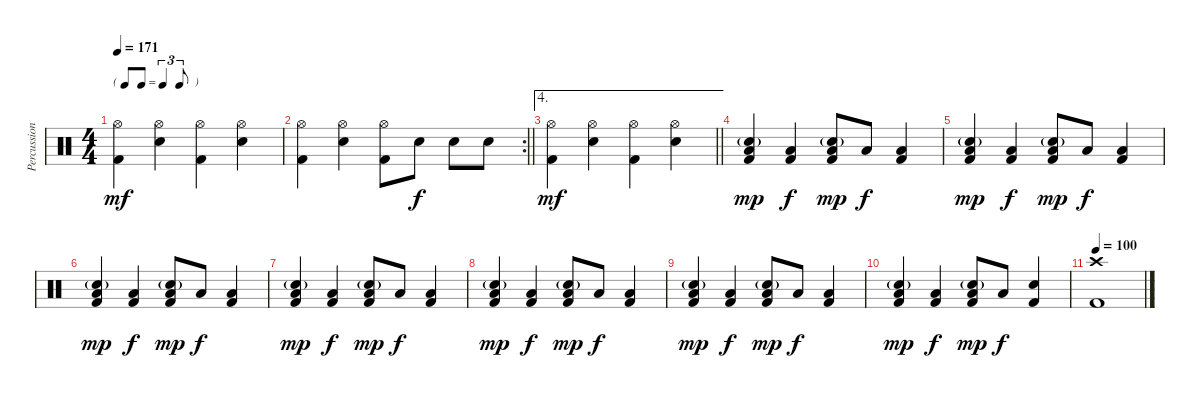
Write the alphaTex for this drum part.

\track ("Percussion" "Percussion") {instrument percussion}
\staff {score}
\articulation defaults
\ts (4 4)
\tf triplet8th
\tempo 171
\clef neutral
\ks c
("Hi-Hat (open)" "Kick (hit) 2").4{dy mf} ("Hi-Hat (open)" "Snare (hit) 2").4 ("Hi-Hat (open)" "Kick (hit) 2").4 ("Hi-Hat (open)" "Snare (hit) 2").4 |
\rc 2
\barLineRight lightlight
("Hi-Hat (open)" "Kick (hit) 2").4 ("Hi-Hat (open)" "Snare (hit) 2").4 ("Hi-Hat (open)" "Kick (hit) 2").8 "Snare (hit) 2".8{dy f} "Snare (hit) 2".8 "Snare (hit) 2".8 |
\ae 4
\barLineRight lightlight
("Hi-Hat (open)" "Kick (hit) 2").4{dy mf} ("Hi-Hat (open)" "Snare (hit) 2").4 ("Hi-Hat (open)" "Kick (hit) 2").4 ("Hi-Hat (open)" "Snare (hit) 2").4 |
("Snare (hit) 2"{g} "Low Floor Tom (hit)" "Kick (hit) 2").4{dy mp} ("Low Floor Tom (hit)" "Kick (hit) 2").4{dy f} ("Snare (hit) 2"{g} "Low Floor Tom (hit)" "Kick (hit) 2").8{dy mp} "Low Floor Tom (hit)".8{dy f} ("Low Floor Tom (hit)" "Kick (hit) 2").4 |
("Snare (hit) 2"{g} "Low Floor Tom (hit)" "Kick (hit) 2").4{dy mp} ("Low Floor Tom (hit)" "Kick (hit) 2").4{dy f} ("Snare (hit) 2"{g} "Low Floor Tom (hit)" "Kick (hit) 2").8{dy mp} "Low Floor Tom (hit)".8{dy f} ("Low Floor Tom (hit)" "Kick (hit) 2").4 |
("Snare (hit) 2"{g} "Low Floor Tom (hit)" "Kick (hit) 2").4{dy mp} ("Low Floor Tom (hit)" "Kick (hit) 2").4{dy f} ("Snare (hit) 2"{g} "Low Floor Tom (hit)" "Kick (hit) 2").8{dy mp} "Low Floor Tom (hit)".8{dy f} ("Low Floor Tom (hit)" "Kick (hit) 2").4 |
("Snare (hit) 2"{g} "Low Floor Tom (hit)" "Kick (hit) 2").4{dy mp} ("Low Floor Tom (hit)" "Kick (hit) 2").4{dy f} ("Snare (hit) 2"{g} "Low Floor Tom (hit)" "Kick (hit) 2").8{dy mp} "Low Floor Tom (hit)".8{dy f} ("Low Floor Tom (hit)" "Kick (hit) 2").4 |
("Snare (hit) 2"{g} "Low Floor Tom (hit)" "Kick (hit) 2").4{dy mp} ("Low Floor Tom (hit)" "Kick (hit) 2").4{dy f} ("Snare (hit) 2"{g} "Low Floor Tom (hit)" "Kick (hit) 2").8{dy mp} "Low Floor Tom (hit)".8{dy f} ("Low Floor Tom (hit)" "Kick (hit) 2").4 |
("Snare (hit) 2"{g} "Low Floor Tom (hit)" "Kick (hit) 2").4{dy mp} ("Low Floor Tom (hit)" "Kick (hit) 2").4{dy f} ("Snare (hit) 2"{g} "Low Floor Tom (hit)" "Kick (hit) 2").8{dy mp} "Low Floor Tom (hit)".8{dy f} ("Low Floor Tom (hit)" "Kick (hit) 2").4 |
("Snare (hit) 2"{g} "Low Floor Tom (hit)" "Kick (hit) 2").4{dy mp} ("Low Floor Tom (hit)" "Kick (hit) 2").4{dy f} ("Snare (hit) 2"{g} "Low Floor Tom (hit)" "Kick (hit) 2").8{dy mp} "Low Floor Tom (hit)".8{dy f} ("Snare (hit) 2" "Kick (hit) 2").4 |
\tempo 100
("Crash high (hit)" "Kick (hit) 2").1
